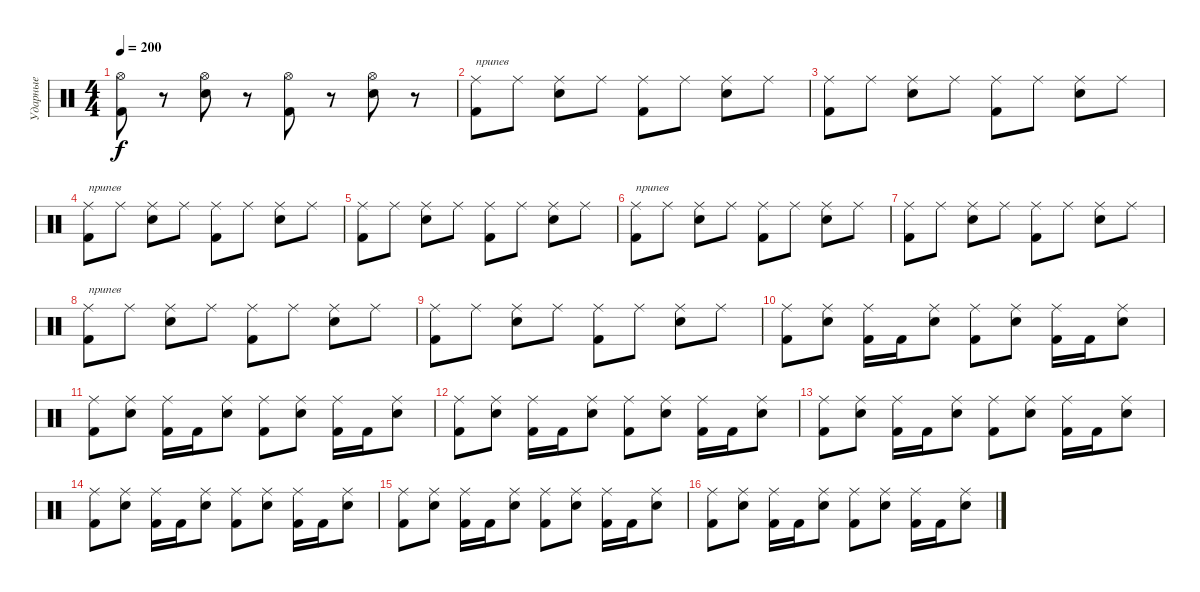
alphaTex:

\track ("Ударные" "Ударные") {instrument percussion}
\staff {score}
\articulation defaults
\ts (4 4)
\tempo 200
\clef neutral
\ks c
("Hi-Hat (open)" "Kick (hit) 2").8{dy f} r.8 ("Hi-Hat (open)" "Snare (hit) 2").8 r.8 ("Hi-Hat (open)" "Kick (hit) 2").8 r.8 ("Hi-Hat (open)" "Snare (hit) 2").8 r.8 |
("Ride (middle)" "Kick (hit) 2").8{txt "припев"} "Ride (middle)".8 ("Ride (middle)" "Snare (hit) 2").8 "Ride (middle)".8 ("Ride (middle)" "Kick (hit) 2").8 "Ride (middle)".8 ("Ride (middle)" "Snare (hit) 2").8 "Ride (middle)".8 |
("Ride (middle)" "Kick (hit) 2").8 "Ride (middle)".8 ("Ride (middle)" "Snare (hit) 2").8 "Ride (middle)".8 ("Ride (middle)" "Kick (hit) 2").8 "Ride (middle)".8 ("Ride (middle)" "Snare (hit) 2").8 "Ride (middle)".8 |
("Ride (middle)" "Kick (hit) 2").8{txt "припев"} "Ride (middle)".8 ("Ride (middle)" "Snare (hit) 2").8 "Ride (middle)".8 ("Ride (middle)" "Kick (hit) 2").8 "Ride (middle)".8 ("Ride (middle)" "Snare (hit) 2").8 "Ride (middle)".8 |
("Ride (middle)" "Kick (hit) 2").8 "Ride (middle)".8 ("Ride (middle)" "Snare (hit) 2").8 "Ride (middle)".8 ("Ride (middle)" "Kick (hit) 2").8 "Ride (middle)".8 ("Ride (middle)" "Snare (hit) 2").8 "Ride (middle)".8 |
("Ride (middle)" "Kick (hit) 2").8{txt "припев"} "Ride (middle)".8 ("Ride (middle)" "Snare (hit) 2").8 "Ride (middle)".8 ("Ride (middle)" "Kick (hit) 2").8 "Ride (middle)".8 ("Ride (middle)" "Snare (hit) 2").8 "Ride (middle)".8 |
("Ride (middle)" "Kick (hit) 2").8 "Ride (middle)".8 ("Ride (middle)" "Snare (hit) 2").8 "Ride (middle)".8 ("Ride (middle)" "Kick (hit) 2").8 "Ride (middle)".8 ("Ride (middle)" "Snare (hit) 2").8 "Ride (middle)".8 |
("Ride (middle)" "Kick (hit) 2").8{txt "припев"} "Ride (middle)".8 ("Ride (middle)" "Snare (hit) 2").8 "Ride (middle)".8 ("Ride (middle)" "Kick (hit) 2").8 "Ride (middle)".8 ("Ride (middle)" "Snare (hit) 2").8 "Ride (middle)".8 |
("Ride (middle)" "Kick (hit) 2").8 "Ride (middle)".8 ("Ride (middle)" "Snare (hit) 2").8 "Ride (middle)".8 ("Ride (middle)" "Kick (hit) 2").8 "Ride (middle)".8 ("Ride (middle)" "Snare (hit) 2").8 "Ride (middle)".8 |
("Kick (hit) 2" "Ride (middle)").8 ("Electric Snare (hit)" "Ride (middle)").8 ("Kick (hit) 2" "Ride (middle)").16 "Kick (hit) 2".16 ("Electric Snare (hit)" "Ride (middle)").8 ("Kick (hit) 2" "Ride (middle)").8 ("Electric Snare (hit)" "Ride (middle)").8 ("Kick (hit) 2" "Ride (middle)").16 "Kick (hit) 2".16 ("Electric Snare (hit)" "Ride (middle)").8 |
("Kick (hit) 2" "Ride (middle)").8 ("Electric Snare (hit)" "Ride (middle)").8 ("Kick (hit) 2" "Ride (middle)").16 "Kick (hit) 2".16 ("Electric Snare (hit)" "Ride (middle)").8 ("Kick (hit) 2" "Ride (middle)").8 ("Electric Snare (hit)" "Ride (middle)").8 ("Kick (hit) 2" "Ride (middle)").16 "Kick (hit) 2".16 ("Electric Snare (hit)" "Ride (middle)").8 |
("Kick (hit) 2" "Ride (middle)").8 ("Electric Snare (hit)" "Ride (middle)").8 ("Kick (hit) 2" "Ride (middle)").16 "Kick (hit) 2".16 ("Electric Snare (hit)" "Ride (middle)").8 ("Kick (hit) 2" "Ride (middle)").8 ("Electric Snare (hit)" "Ride (middle)").8 ("Kick (hit) 2" "Ride (middle)").16 "Kick (hit) 2".16 ("Electric Snare (hit)" "Ride (middle)").8 |
("Kick (hit) 2" "Ride (middle)").8 ("Electric Snare (hit)" "Ride (middle)").8 ("Kick (hit) 2" "Ride (middle)").16 "Kick (hit) 2".16 ("Electric Snare (hit)" "Ride (middle)").8 ("Kick (hit) 2" "Ride (middle)").8 ("Electric Snare (hit)" "Ride (middle)").8 ("Kick (hit) 2" "Ride (middle)").16 "Kick (hit) 2".16 ("Electric Snare (hit)" "Ride (middle)").8 |
("Kick (hit) 2" "Ride (middle)").8 ("Electric Snare (hit)" "Ride (middle)").8 ("Kick (hit) 2" "Ride (middle)").16 "Kick (hit) 2".16 ("Electric Snare (hit)" "Ride (middle)").8 ("Kick (hit) 2" "Ride (middle)").8 ("Electric Snare (hit)" "Ride (middle)").8 ("Kick (hit) 2" "Ride (middle)").16 "Kick (hit) 2".16 ("Electric Snare (hit)" "Ride (middle)").8 |
("Kick (hit) 2" "Ride (middle)").8 ("Electric Snare (hit)" "Ride (middle)").8 ("Kick (hit) 2" "Ride (middle)").16 "Kick (hit) 2".16 ("Electric Snare (hit)" "Ride (middle)").8 ("Kick (hit) 2" "Ride (middle)").8 ("Electric Snare (hit)" "Ride (middle)").8 ("Kick (hit) 2" "Ride (middle)").16 "Kick (hit) 2".16 ("Electric Snare (hit)" "Ride (middle)").8 |
("Kick (hit) 2" "Ride (middle)").8 ("Electric Snare (hit)" "Ride (middle)").8 ("Kick (hit) 2" "Ride (middle)").16 "Kick (hit) 2".16 ("Electric Snare (hit)" "Ride (middle)").8 ("Kick (hit) 2" "Ride (middle)").8 ("Electric Snare (hit)" "Ride (middle)").8 ("Kick (hit) 2" "Ride (middle)").16 "Kick (hit) 2".16 ("Electric Snare (hit)" "Ride (middle)").8
